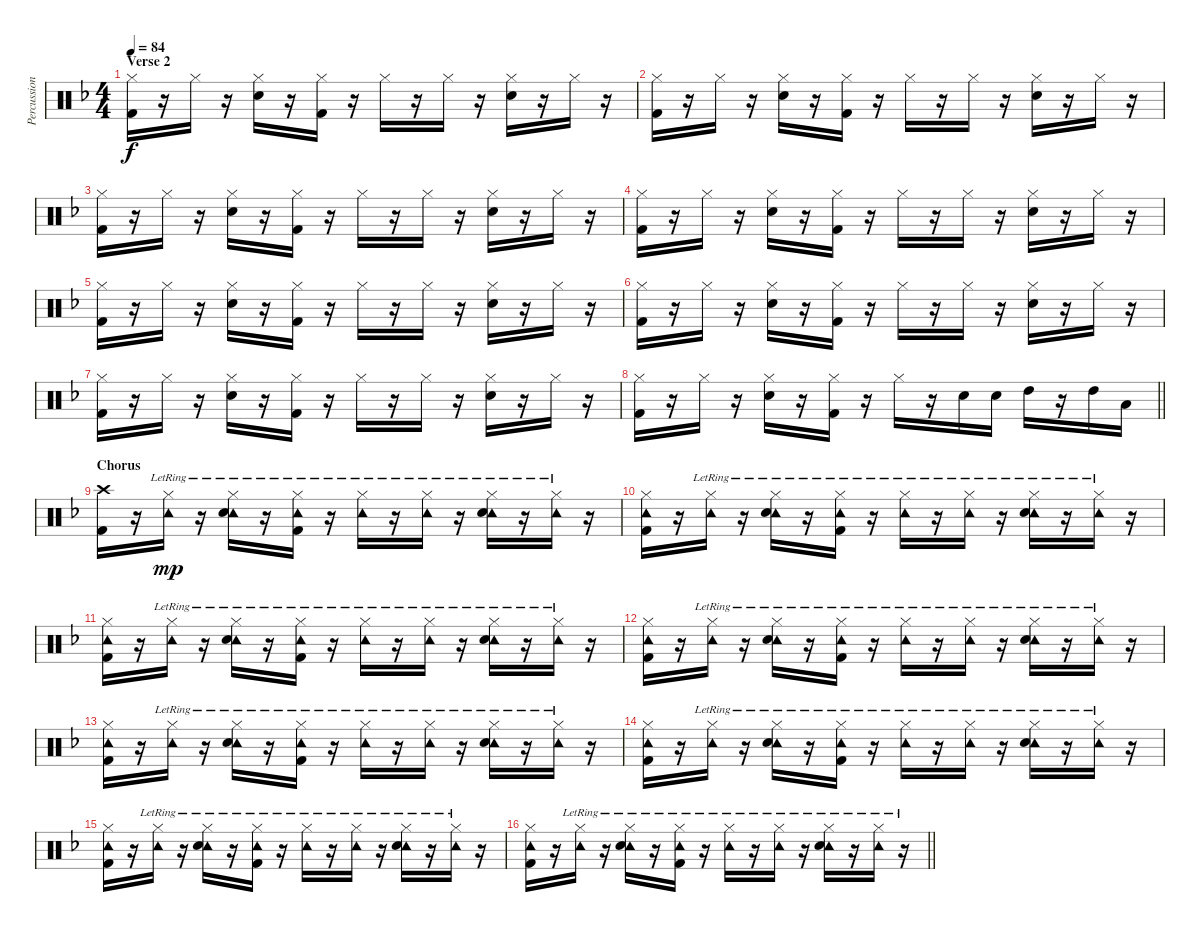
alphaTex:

\track ("Percussion" "Percussion") {instrument percussion}
\staff {score}
\articulation defaults
\ts (4 4)
\section ("" "Verse 2")
\tempo 84
\clef neutral
\ks f
("Hi-Hat (closed)" "Kick (hit) 2").16{dy f} r.16 "Hi-Hat (closed)".16 r.16 ("Hi-Hat (closed)" "Snare (hit) 2").16 r.16 ("Hi-Hat (closed)" "Kick (hit) 2").16 r.16 "Hi-Hat (closed)".16 r.16 "Hi-Hat (closed)".16 r.16 ("Hi-Hat (closed)" "Snare (hit) 2").16 r.16 "Hi-Hat (closed)".16 r.16 |
("Hi-Hat (closed)" "Kick (hit) 2").16 r.16 "Hi-Hat (closed)".16 r.16 ("Hi-Hat (closed)" "Snare (hit) 2").16 r.16 ("Hi-Hat (closed)" "Kick (hit) 2").16 r.16 "Hi-Hat (closed)".16 r.16 "Hi-Hat (closed)".16 r.16 ("Hi-Hat (closed)" "Snare (hit) 2").16 r.16 "Hi-Hat (closed)".16 r.16 |
("Hi-Hat (closed)" "Kick (hit) 2").16 r.16 "Hi-Hat (closed)".16 r.16 ("Hi-Hat (closed)" "Snare (hit) 2").16 r.16 ("Hi-Hat (closed)" "Kick (hit) 2").16 r.16 "Hi-Hat (closed)".16 r.16 "Hi-Hat (closed)".16 r.16 ("Hi-Hat (closed)" "Snare (hit) 2").16 r.16 "Hi-Hat (closed)".16 r.16 |
("Hi-Hat (closed)" "Kick (hit) 2").16 r.16 "Hi-Hat (closed)".16 r.16 ("Hi-Hat (closed)" "Snare (hit) 2").16 r.16 ("Hi-Hat (closed)" "Kick (hit) 2").16 r.16 "Hi-Hat (closed)".16 r.16 "Hi-Hat (closed)".16 r.16 ("Hi-Hat (closed)" "Snare (hit) 2").16 r.16 "Hi-Hat (closed)".16 r.16 |
("Hi-Hat (closed)" "Kick (hit) 2").16 r.16 "Hi-Hat (closed)".16 r.16 ("Hi-Hat (closed)" "Snare (hit) 2").16 r.16 ("Hi-Hat (closed)" "Kick (hit) 2").16 r.16 "Hi-Hat (closed)".16 r.16 "Hi-Hat (closed)".16 r.16 ("Hi-Hat (closed)" "Snare (hit) 2").16 r.16 "Hi-Hat (closed)".16 r.16 |
("Hi-Hat (closed)" "Kick (hit) 2").16 r.16 "Hi-Hat (closed)".16 r.16 ("Hi-Hat (closed)" "Snare (hit) 2").16 r.16 ("Hi-Hat (closed)" "Kick (hit) 2").16 r.16 "Hi-Hat (closed)".16 r.16 "Hi-Hat (closed)".16 r.16 ("Hi-Hat (closed)" "Snare (hit) 2").16 r.16 "Hi-Hat (closed)".16 r.16 |
("Hi-Hat (closed)" "Kick (hit) 2").16 r.16 "Hi-Hat (closed)".16 r.16 ("Hi-Hat (closed)" "Snare (hit) 2").16 r.16 ("Hi-Hat (closed)" "Kick (hit) 2").16 r.16 "Hi-Hat (closed)".16 r.16 "Hi-Hat (closed)".16 r.16 ("Hi-Hat (closed)" "Snare (hit) 2").16 r.16 "Hi-Hat (closed)".16 r.16 |
\barLineRight lightlight
("Hi-Hat (closed)" "Kick (hit) 2").16 r.16 "Hi-Hat (closed)".16 r.16 ("Hi-Hat (closed)" "Snare (hit) 2").16 r.16 ("Hi-Hat (closed)" "Kick (hit) 2").16 r.16 "Hi-Hat (closed)".16 r.16 "Snare (hit) 2".16 "Snare (hit) 2".16 "High Tom (hit)".16 r.16 "High Tom (hit)".16 "Low Tom (hit)".16 |
\section ("" "Chorus")
("Crash high (hit)" "Kick (hit) 2").16 r.16 ("Hi-Hat (closed)" "Tambourine (hit)"{lr}).16{dy mp} r.16 ("Hi-Hat (closed)" "Tambourine (hit)"{lr} "Snare (hit) 2").16 r.16 ("Hi-Hat (closed)" "Tambourine (hit)"{lr} "Kick (hit) 2").16 r.16 ("Hi-Hat (closed)" "Tambourine (hit)"{lr}).16 r.16 ("Hi-Hat (closed)" "Tambourine (hit)"{lr}).16 r.16 ("Hi-Hat (closed)" "Tambourine (hit)"{lr} "Snare (hit) 2").16 r.16 ("Hi-Hat (closed)" "Tambourine (hit)"{lr}).16 r.16 |
("Hi-Hat (closed)" "Tambourine (hit)" "Kick (hit) 2").16 r.16 ("Hi-Hat (closed)" "Tambourine (hit)"{lr}).16 r.16 ("Hi-Hat (closed)" "Tambourine (hit)"{lr} "Snare (hit) 2").16 r.16 ("Hi-Hat (closed)" "Tambourine (hit)"{lr} "Kick (hit) 2").16 r.16 ("Hi-Hat (closed)" "Tambourine (hit)"{lr}).16 r.16 ("Hi-Hat (closed)" "Tambourine (hit)"{lr}).16 r.16 ("Hi-Hat (closed)" "Tambourine (hit)"{lr} "Snare (hit) 2").16 r.16 ("Hi-Hat (closed)" "Tambourine (hit)"{lr}).16 r.16 |
("Hi-Hat (closed)" "Tambourine (hit)" "Kick (hit) 2").16 r.16 ("Hi-Hat (closed)" "Tambourine (hit)"{lr}).16 r.16 ("Hi-Hat (closed)" "Tambourine (hit)"{lr} "Snare (hit) 2").16 r.16 ("Hi-Hat (closed)" "Tambourine (hit)"{lr} "Kick (hit) 2").16 r.16 ("Hi-Hat (closed)" "Tambourine (hit)"{lr}).16 r.16 ("Hi-Hat (closed)" "Tambourine (hit)"{lr}).16 r.16 ("Hi-Hat (closed)" "Tambourine (hit)"{lr} "Snare (hit) 2").16 r.16 ("Hi-Hat (closed)" "Tambourine (hit)"{lr}).16 r.16 |
("Hi-Hat (closed)" "Tambourine (hit)" "Kick (hit) 2").16 r.16 ("Hi-Hat (closed)" "Tambourine (hit)"{lr}).16 r.16 ("Hi-Hat (closed)" "Tambourine (hit)"{lr} "Snare (hit) 2").16 r.16 ("Hi-Hat (closed)" "Tambourine (hit)"{lr} "Kick (hit) 2").16 r.16 ("Hi-Hat (closed)" "Tambourine (hit)"{lr}).16 r.16 ("Hi-Hat (closed)" "Tambourine (hit)"{lr}).16 r.16 ("Hi-Hat (closed)" "Tambourine (hit)"{lr} "Snare (hit) 2").16 r.16 ("Hi-Hat (closed)" "Tambourine (hit)"{lr}).16 r.16 |
("Hi-Hat (closed)" "Tambourine (hit)" "Kick (hit) 2").16 r.16 ("Hi-Hat (closed)" "Tambourine (hit)"{lr}).16 r.16 ("Hi-Hat (closed)" "Tambourine (hit)"{lr} "Snare (hit) 2").16 r.16 ("Hi-Hat (closed)" "Tambourine (hit)"{lr} "Kick (hit) 2").16 r.16 ("Hi-Hat (closed)" "Tambourine (hit)"{lr}).16 r.16 ("Hi-Hat (closed)" "Tambourine (hit)"{lr}).16 r.16 ("Hi-Hat (closed)" "Tambourine (hit)"{lr} "Snare (hit) 2").16 r.16 ("Hi-Hat (closed)" "Tambourine (hit)"{lr}).16 r.16 |
("Hi-Hat (closed)" "Tambourine (hit)" "Kick (hit) 2").16 r.16 ("Hi-Hat (closed)" "Tambourine (hit)"{lr}).16 r.16 ("Hi-Hat (closed)" "Tambourine (hit)"{lr} "Snare (hit) 2").16 r.16 ("Hi-Hat (closed)" "Tambourine (hit)"{lr} "Kick (hit) 2").16 r.16 ("Hi-Hat (closed)" "Tambourine (hit)"{lr}).16 r.16 ("Hi-Hat (closed)" "Tambourine (hit)"{lr}).16 r.16 ("Hi-Hat (closed)" "Tambourine (hit)"{lr} "Snare (hit) 2").16 r.16 ("Hi-Hat (closed)" "Tambourine (hit)"{lr}).16 r.16 |
("Hi-Hat (closed)" "Tambourine (hit)" "Kick (hit) 2").16 r.16 ("Hi-Hat (closed)" "Tambourine (hit)"{lr}).16 r.16 ("Hi-Hat (closed)" "Tambourine (hit)"{lr} "Snare (hit) 2").16 r.16 ("Hi-Hat (closed)" "Tambourine (hit)"{lr} "Kick (hit) 2").16 r.16 ("Hi-Hat (closed)" "Tambourine (hit)"{lr}).16 r.16 ("Hi-Hat (closed)" "Tambourine (hit)"{lr}).16 r.16 ("Hi-Hat (closed)" "Tambourine (hit)"{lr} "Snare (hit) 2").16 r.16 ("Hi-Hat (closed)" "Tambourine (hit)"{lr}).16 r.16 |
\barLineRight lightlight
("Hi-Hat (closed)" "Tambourine (hit)" "Kick (hit) 2").16 r.16 ("Hi-Hat (closed)" "Tambourine (hit)"{lr}).16 r.16 ("Hi-Hat (closed)" "Tambourine (hit)"{lr} "Snare (hit) 2").16 r.16 ("Hi-Hat (closed)" "Tambourine (hit)"{lr} "Kick (hit) 2").16 r.16 ("Hi-Hat (closed)" "Tambourine (hit)"{lr}).16 r.16 ("Hi-Hat (closed)" "Tambourine (hit)"{lr}).16 r.16 ("Hi-Hat (closed)" "Tambourine (hit)"{lr} "Snare (hit) 2").16 r.16 ("Hi-Hat (closed)" "Tambourine (hit)"{lr}).16 r.16
